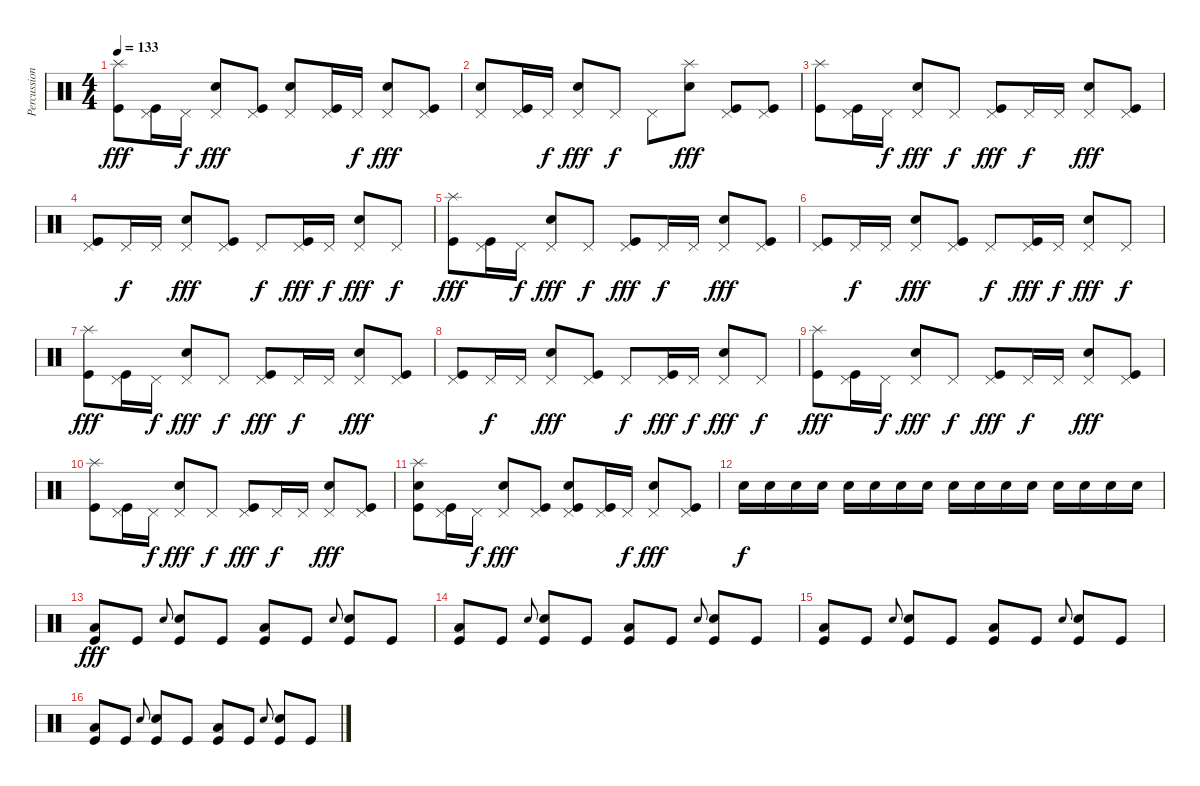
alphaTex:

\track ("Percussion" "Percussion") {instrument percussion}
\staff {score}
\articulation defaults
\ts (4 4)
\tempo 133
\clef neutral
\ks c
("Splash (hit)" "Kick (hit)").8{dy fff} ("Pedal Hi-Hat (hit)" "Kick (hit)").16 "Pedal Hi-Hat (hit)".16{dy f} ("Snare (hit) 2" "Pedal Hi-Hat (hit)").8{dy fff} ("Pedal Hi-Hat (hit)" "Kick (hit)").8 ("Snare (hit) 2" "Pedal Hi-Hat (hit)").8 ("Pedal Hi-Hat (hit)" "Kick (hit)").16 "Pedal Hi-Hat (hit)".16{dy f} ("Snare (hit) 2" "Pedal Hi-Hat (hit)").8{dy fff} ("Pedal Hi-Hat (hit)" "Kick (hit)").8 |
("Snare (hit) 2" "Pedal Hi-Hat (hit)").8 ("Pedal Hi-Hat (hit)" "Kick (hit)").16 "Pedal Hi-Hat (hit)".16{dy f} ("Snare (hit) 2" "Pedal Hi-Hat (hit)").8{dy fff} "Pedal Hi-Hat (hit)".8{dy f} "Pedal Hi-Hat (hit)".8 ("Snare (hit) 2" "Splash (hit)").8{dy fff} ("Pedal Hi-Hat (hit)" "Kick (hit)").8 ("Pedal Hi-Hat (hit)" "Kick (hit)").8 |
("Splash (hit)" "Kick (hit)").8 ("Pedal Hi-Hat (hit)" "Kick (hit)").16 "Pedal Hi-Hat (hit)".16{dy f} ("Snare (hit) 2" "Pedal Hi-Hat (hit)").8{dy fff} "Pedal Hi-Hat (hit)".8{dy f} ("Pedal Hi-Hat (hit)" "Kick (hit)").8{dy fff} "Pedal Hi-Hat (hit)".16{dy f} "Pedal Hi-Hat (hit)".16 ("Snare (hit) 2" "Pedal Hi-Hat (hit)").8{dy fff} ("Pedal Hi-Hat (hit)" "Kick (hit)").8 |
("Pedal Hi-Hat (hit)" "Kick (hit)").8 "Pedal Hi-Hat (hit)".16{dy f} "Pedal Hi-Hat (hit)".16 ("Snare (hit) 2" "Pedal Hi-Hat (hit)").8{dy fff} ("Pedal Hi-Hat (hit)" "Kick (hit)").8 "Pedal Hi-Hat (hit)".8{dy f} ("Pedal Hi-Hat (hit)" "Kick (hit)").16{dy fff} "Pedal Hi-Hat (hit)".16{dy f} ("Snare (hit) 2" "Pedal Hi-Hat (hit)").8{dy fff} "Pedal Hi-Hat (hit)".8{dy f} |
("Splash (hit)" "Kick (hit)").8{dy fff} ("Pedal Hi-Hat (hit)" "Kick (hit)").16 "Pedal Hi-Hat (hit)".16{dy f} ("Snare (hit) 2" "Pedal Hi-Hat (hit)").8{dy fff} "Pedal Hi-Hat (hit)".8{dy f} ("Pedal Hi-Hat (hit)" "Kick (hit)").8{dy fff} "Pedal Hi-Hat (hit)".16{dy f} "Pedal Hi-Hat (hit)".16 ("Snare (hit) 2" "Pedal Hi-Hat (hit)").8{dy fff} ("Pedal Hi-Hat (hit)" "Kick (hit)").8 |
("Pedal Hi-Hat (hit)" "Kick (hit)").8 "Pedal Hi-Hat (hit)".16{dy f} "Pedal Hi-Hat (hit)".16 ("Snare (hit) 2" "Pedal Hi-Hat (hit)").8{dy fff} ("Pedal Hi-Hat (hit)" "Kick (hit)").8 "Pedal Hi-Hat (hit)".8{dy f} ("Pedal Hi-Hat (hit)" "Kick (hit)").16{dy fff} "Pedal Hi-Hat (hit)".16{dy f} ("Snare (hit) 2" "Pedal Hi-Hat (hit)").8{dy fff} "Pedal Hi-Hat (hit)".8{dy f} |
("Splash (hit)" "Kick (hit)").8{dy fff} ("Pedal Hi-Hat (hit)" "Kick (hit)").16 "Pedal Hi-Hat (hit)".16{dy f} ("Snare (hit) 2" "Pedal Hi-Hat (hit)").8{dy fff} "Pedal Hi-Hat (hit)".8{dy f} ("Pedal Hi-Hat (hit)" "Kick (hit)").8{dy fff} "Pedal Hi-Hat (hit)".16{dy f} "Pedal Hi-Hat (hit)".16 ("Snare (hit) 2" "Pedal Hi-Hat (hit)").8{dy fff} ("Pedal Hi-Hat (hit)" "Kick (hit)").8 |
("Pedal Hi-Hat (hit)" "Kick (hit)").8 "Pedal Hi-Hat (hit)".16{dy f} "Pedal Hi-Hat (hit)".16 ("Snare (hit) 2" "Pedal Hi-Hat (hit)").8{dy fff} ("Pedal Hi-Hat (hit)" "Kick (hit)").8 "Pedal Hi-Hat (hit)".8{dy f} ("Pedal Hi-Hat (hit)" "Kick (hit)").16{dy fff} "Pedal Hi-Hat (hit)".16{dy f} ("Snare (hit) 2" "Pedal Hi-Hat (hit)").8{dy fff} "Pedal Hi-Hat (hit)".8{dy f} |
("Splash (hit)" "Kick (hit)").8{dy fff} ("Pedal Hi-Hat (hit)" "Kick (hit)").16 "Pedal Hi-Hat (hit)".16{dy f} ("Snare (hit) 2" "Pedal Hi-Hat (hit)").8{dy fff} "Pedal Hi-Hat (hit)".8{dy f} ("Pedal Hi-Hat (hit)" "Kick (hit)").8{dy fff} "Pedal Hi-Hat (hit)".16{dy f} "Pedal Hi-Hat (hit)".16 ("Snare (hit) 2" "Pedal Hi-Hat (hit)").8{dy fff} ("Pedal Hi-Hat (hit)" "Kick (hit)").8 |
("Splash (hit)" "Kick (hit)").8 ("Pedal Hi-Hat (hit)" "Kick (hit)").16 "Pedal Hi-Hat (hit)".16{dy f} ("Snare (hit) 2" "Pedal Hi-Hat (hit)").8{dy fff} "Pedal Hi-Hat (hit)".8{dy f} ("Pedal Hi-Hat (hit)" "Kick (hit)").8{dy fff} "Pedal Hi-Hat (hit)".16{dy f} "Pedal Hi-Hat (hit)".16 ("Snare (hit) 2" "Pedal Hi-Hat (hit)").8{dy fff} ("Pedal Hi-Hat (hit)" "Kick (hit)").8 |
("Snare (hit) 2" "Splash (hit)" "Kick (hit)").8 ("Pedal Hi-Hat (hit)" "Kick (hit)").16 "Pedal Hi-Hat (hit)".16{dy f} ("Snare (hit) 2" "Pedal Hi-Hat (hit)").8{dy fff} ("Pedal Hi-Hat (hit)" "Kick (hit)").8 ("Snare (hit) 2" "Pedal Hi-Hat (hit)" "Kick (hit)").8 ("Pedal Hi-Hat (hit)" "Kick (hit)").16 "Pedal Hi-Hat (hit)".16{dy f} ("Snare (hit) 2" "Pedal Hi-Hat (hit)").8{dy fff} ("Pedal Hi-Hat (hit)" "Kick (hit)").8 |
"Snare (hit) 2".16{dy f} "Snare (hit) 2".16 "Snare (hit) 2".16 "Snare (hit) 2".16 "Snare (hit) 2".16 "Snare (hit) 2".16 "Snare (hit) 2".16 "Snare (hit) 2".16 "Snare (hit) 2".16 "Snare (hit) 2".16 "Snare (hit) 2".16 "Snare (hit) 2".16 "Snare (hit) 2".16 "Snare (hit) 2".16 "Snare (hit) 2".16 "Snare (hit) 2".16 |
("Low Floor Tom (hit)" "Kick (hit)").8{dy fff} "Kick (hit)".8 "Snare (hit) 2".8{gr onbeat} ("Snare (hit) 2" "Kick (hit)").8 "Kick (hit)".8 ("Low Floor Tom (hit)" "Kick (hit)").8 "Kick (hit)".8 "Snare (hit) 2".8{gr onbeat} ("Snare (hit) 2" "Kick (hit)").8 "Kick (hit)".8 |
("Low Floor Tom (hit)" "Kick (hit)").8 "Kick (hit)".8 "Snare (hit) 2".8{gr onbeat} ("Snare (hit) 2" "Kick (hit)").8 "Kick (hit)".8 ("Low Floor Tom (hit)" "Kick (hit)").8 "Kick (hit)".8 "Snare (hit) 2".8{gr onbeat} ("Snare (hit) 2" "Kick (hit)").8 "Kick (hit)".8 |
("Low Floor Tom (hit)" "Kick (hit)").8 "Kick (hit)".8 "Snare (hit) 2".8{gr onbeat} ("Snare (hit) 2" "Kick (hit)").8 "Kick (hit)".8 ("Low Floor Tom (hit)" "Kick (hit)").8 "Kick (hit)".8 "Snare (hit) 2".8{gr onbeat} ("Snare (hit) 2" "Kick (hit)").8 "Kick (hit)".8 |
("Low Floor Tom (hit)" "Kick (hit)").8 "Kick (hit)".8 "Snare (hit) 2".8{gr onbeat} ("Snare (hit) 2" "Kick (hit)").8 "Kick (hit)".8 ("Low Floor Tom (hit)" "Kick (hit)").8 "Kick (hit)".8 "Snare (hit) 2".8{gr onbeat} ("Snare (hit) 2" "Kick (hit)").8 "Kick (hit)".8
